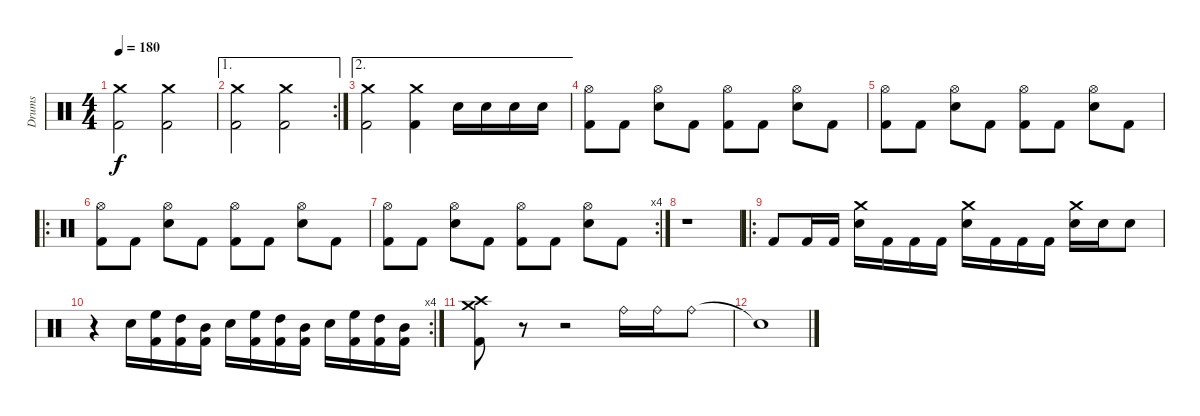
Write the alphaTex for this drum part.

\track ("Drums" "Drums") {instrument percussion}
\staff {score}
\articulation defaults
\ts (4 4)
\tempo 180
\clef neutral
\ks c
("Crash medium (hit)" "Kick (hit) 2").2{dy f} ("Crash medium (hit)" "Kick (hit) 2").2 |
\ae 1
\rc 2
("Crash medium (hit)" "Kick (hit) 2").2 ("Crash medium (hit)" "Kick (hit) 2").2 |
\ae 2
("Crash medium (hit)" "Kick (hit) 2").2 ("Crash medium (hit)" "Kick (hit) 2").4 "Electric Snare (hit)".16 "Electric Snare (hit)".16 "Electric Snare (hit)".16 "Electric Snare (hit)".16 |
("Hi-Hat (open)" "Kick (hit) 2").8 "Kick (hit) 2".8 ("Hi-Hat (open)" "Electric Snare (hit)").8 "Kick (hit) 2".8 ("Hi-Hat (open)" "Kick (hit) 2").8 "Kick (hit) 2".8 ("Hi-Hat (open)" "Electric Snare (hit)").8 "Kick (hit) 2".8 |
("Hi-Hat (open)" "Kick (hit) 2").8 "Kick (hit) 2".8 ("Hi-Hat (open)" "Electric Snare (hit)").8 "Kick (hit) 2".8 ("Hi-Hat (open)" "Kick (hit) 2").8 "Kick (hit) 2".8 ("Hi-Hat (open)" "Electric Snare (hit)").8 "Kick (hit) 2".8 |
\ro
("Hi-Hat (open)" "Kick (hit) 2").8 "Kick (hit) 2".8 ("Hi-Hat (open)" "Electric Snare (hit)").8 "Kick (hit) 2".8 ("Hi-Hat (open)" "Kick (hit) 2").8 "Kick (hit) 2".8 ("Hi-Hat (open)" "Electric Snare (hit)").8 "Kick (hit) 2".8 |
\rc 4
("Hi-Hat (open)" "Kick (hit) 2").8 "Kick (hit) 2".8 ("Hi-Hat (open)" "Electric Snare (hit)").8 "Kick (hit) 2".8 ("Hi-Hat (open)" "Kick (hit) 2").8 "Kick (hit) 2".8 ("Hi-Hat (open)" "Electric Snare (hit)").8 "Kick (hit) 2".8 |
r.1 |
\ro "Kick (hit) 2".8 "Kick (hit) 2".16 "Kick (hit) 2".16
("Crash medium (hit)" "Electric Snare (hit)").16 "Kick (hit) 2".16 "Kick (hit) 2".16 "Kick (hit) 2".16 ("Crash medium (hit)" "Electric Snare (hit)").16 "Kick (hit) 2".16 "Kick (hit) 2".16 "Kick (hit) 2".16 ("Crash medium (hit)" "Electric Snare (hit)").16 "Electric Snare (hit)".16 "Electric Snare (hit)".8 |
\rc 4
r.4 "Electric Snare (hit)".16 ("High Floor Tom (hit)" "Kick (hit) 2").16 ("High Tom (hit)" "Kick (hit) 2").16 ("Mid Tom (hit)" "Kick (hit) 2").16 "Electric Snare (hit)".16 ("High Floor Tom (hit)" "Kick (hit) 2").16 ("High Tom (hit)" "Kick (hit) 2").16 ("Mid Tom (hit)" "Kick (hit) 2").16 "Electric Snare (hit)".16 ("High Floor Tom (hit)" "Kick (hit) 2").16 ("High Tom (hit)" "Kick (hit) 2").16 ("Mid Tom (hit)" "Kick (hit) 2").16 |
("Crash high (hit)" "Crash medium (hit)" "Kick (hit) 2").8 r.8 r.2 "Ride (bell)".16 "Ride (bell)".16 "Ride (bell)".8 |
"Snare (hit)"{t}.1
